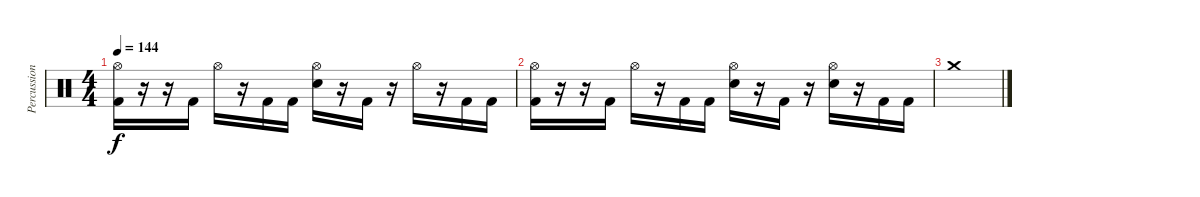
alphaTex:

\track ("Percussion" "Percussion") {instrument percussion}
\staff {score}
\articulation defaults
\ts (4 4)
\tempo 144
\clef neutral
\ks c
("Hi-Hat (open)" "Kick (hit) 2").16{dy f} r.16 r.16 "Kick (hit) 2".16 "Hi-Hat (open)".16 r.16 "Kick (hit) 2".16 "Kick (hit) 2".16 ("Hi-Hat (open)" "Snare (hit) 2").16 r.16 "Kick (hit) 2".16 r.16 "Hi-Hat (open)".16 r.16 "Kick (hit) 2".16 "Kick (hit) 2".16 |
("Hi-Hat (open)" "Kick (hit) 2").16 r.16 r.16 "Kick (hit) 2".16 "Hi-Hat (open)".16 r.16 "Kick (hit) 2".16 "Kick (hit) 2".16 ("Hi-Hat (open)" "Snare (hit) 2").16 r.16 "Kick (hit) 2".16 r.16 ("Hi-Hat (open)" "Snare (hit) 2").16 r.16 "Kick (hit) 2".16 "Kick (hit) 2".16 |
"Crash medium (hit)".1
